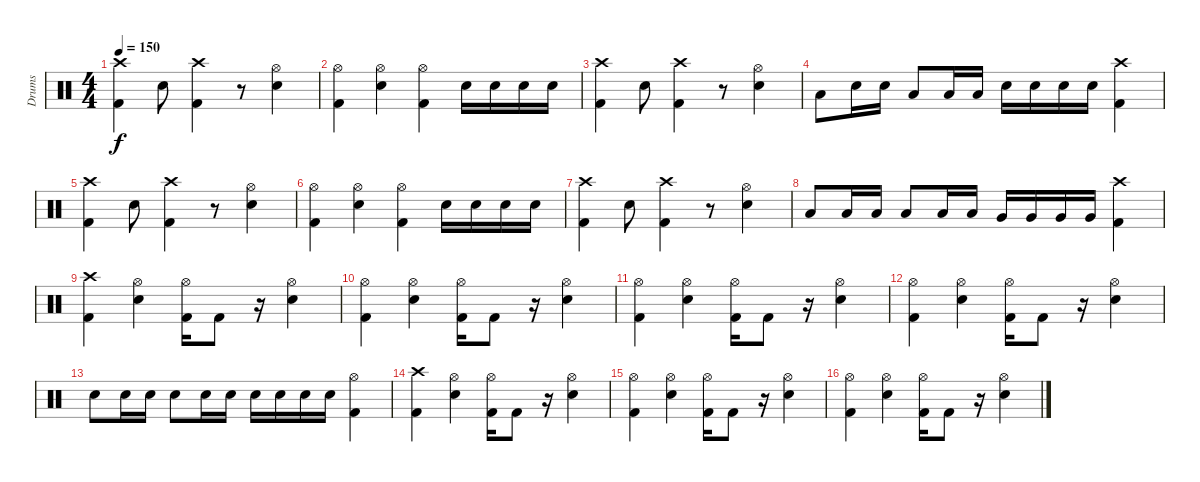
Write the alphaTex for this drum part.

\track ("Drums" "Drums") {instrument percussion}
\staff {score}
\articulation defaults
\ts (4 4)
\tempo 150
\clef neutral
\ks c
("Crash high (hit)" "Kick (hit) 2").4{dy f} "Snare (hit) 2".8 ("Crash high (hit)" "Kick (hit) 2").4 r.8 ("Hi-Hat (open)" "Snare (hit) 2").4 |
("Hi-Hat (open)" "Kick (hit) 2").4 ("Hi-Hat (open)" "Snare (hit) 2").4 ("Hi-Hat (open)" "Kick (hit) 2").4 "Snare (hit) 2".16 "Snare (hit) 2".16 "Snare (hit) 2".16 "Snare (hit) 2".16 |
("Crash high (hit)" "Kick (hit) 2").4 "Snare (hit) 2".8 ("Crash high (hit)" "Kick (hit) 2").4 r.8 ("Hi-Hat (open)" "Snare (hit) 2").4 |
"Low Tom (hit)".8 "Snare (hit) 2".16 "Snare (hit) 2".16 "Low Tom (hit)".8 "Low Tom (hit)".16 "Low Tom (hit)".16 "Snare (hit) 2".16 "Snare (hit) 2".16 "Snare (hit) 2".16 "Snare (hit) 2".16 ("Crash high (hit)" "Kick (hit) 2").4 |
("Crash high (hit)" "Kick (hit) 2").4 "Snare (hit) 2".8 ("Crash high (hit)" "Kick (hit) 2").4 r.8 ("Hi-Hat (open)" "Snare (hit) 2").4 |
("Hi-Hat (open)" "Kick (hit) 2").4 ("Hi-Hat (open)" "Snare (hit) 2").4 ("Hi-Hat (open)" "Kick (hit) 2").4 "Snare (hit) 2".16 "Snare (hit) 2".16 "Snare (hit) 2".16 "Snare (hit) 2".16 |
("Crash high (hit)" "Kick (hit) 2").4 "Snare (hit) 2".8 ("Crash high (hit)" "Kick (hit) 2").4 r.8 ("Hi-Hat (open)" "Snare (hit) 2").4 |
"Low Tom (hit)".8 "Low Tom (hit)".16 "Low Tom (hit)".16 "Low Tom (hit)".8 "Low Tom (hit)".16 "Low Tom (hit)".16 "Very Low Tom (hit)".16 "Very Low Tom (hit)".16 "Very Low Tom (hit)".16 "Very Low Tom (hit)".16 ("Crash high (hit)" "Kick (hit) 2").4 |
("Crash high (hit)" "Kick (hit) 2").4 ("Hi-Hat (open)" "Snare (hit) 2").4 ("Hi-Hat (open)" "Kick (hit) 2").16 "Kick (hit) 2".8 r.16 ("Hi-Hat (open)" "Snare (hit) 2").4 |
("Hi-Hat (open)" "Kick (hit) 2").4 ("Hi-Hat (open)" "Snare (hit) 2").4 ("Hi-Hat (open)" "Kick (hit) 2").16 "Kick (hit) 2".8 r.16 ("Hi-Hat (open)" "Snare (hit) 2").4 |
("Hi-Hat (open)" "Kick (hit) 2").4 ("Hi-Hat (open)" "Snare (hit) 2").4 ("Hi-Hat (open)" "Kick (hit) 2").16 "Kick (hit) 2".8 r.16 ("Hi-Hat (open)" "Snare (hit) 2").4 |
("Hi-Hat (open)" "Kick (hit) 2").4 ("Hi-Hat (open)" "Snare (hit) 2").4 ("Hi-Hat (open)" "Kick (hit) 2").16 "Kick (hit) 2".8 r.16 ("Hi-Hat (open)" "Snare (hit) 2").4 |
"Snare (hit) 2".8 "Snare (hit) 2".16 "Snare (hit) 2".16 "Snare (hit) 2".8 "Snare (hit) 2".16 "Snare (hit) 2".16 "Snare (hit) 2".16 "Snare (hit) 2".16 "Snare (hit) 2".16 "Snare (hit) 2".16 ("Hi-Hat (open)" "Kick (hit) 2").4 |
("Crash high (hit)" "Kick (hit) 2").4 ("Hi-Hat (open)" "Snare (hit) 2").4 ("Hi-Hat (open)" "Kick (hit) 2").16 "Kick (hit) 2".8 r.16 ("Hi-Hat (open)" "Snare (hit) 2").4 |
("Hi-Hat (open)" "Kick (hit) 2").4 ("Hi-Hat (open)" "Snare (hit) 2").4 ("Hi-Hat (open)" "Kick (hit) 2").16 "Kick (hit) 2".8 r.16 ("Hi-Hat (open)" "Snare (hit) 2").4 |
("Hi-Hat (open)" "Kick (hit) 2").4 ("Hi-Hat (open)" "Snare (hit) 2").4 ("Hi-Hat (open)" "Kick (hit) 2").16 "Kick (hit) 2".8 r.16 ("Hi-Hat (open)" "Snare (hit) 2").4
